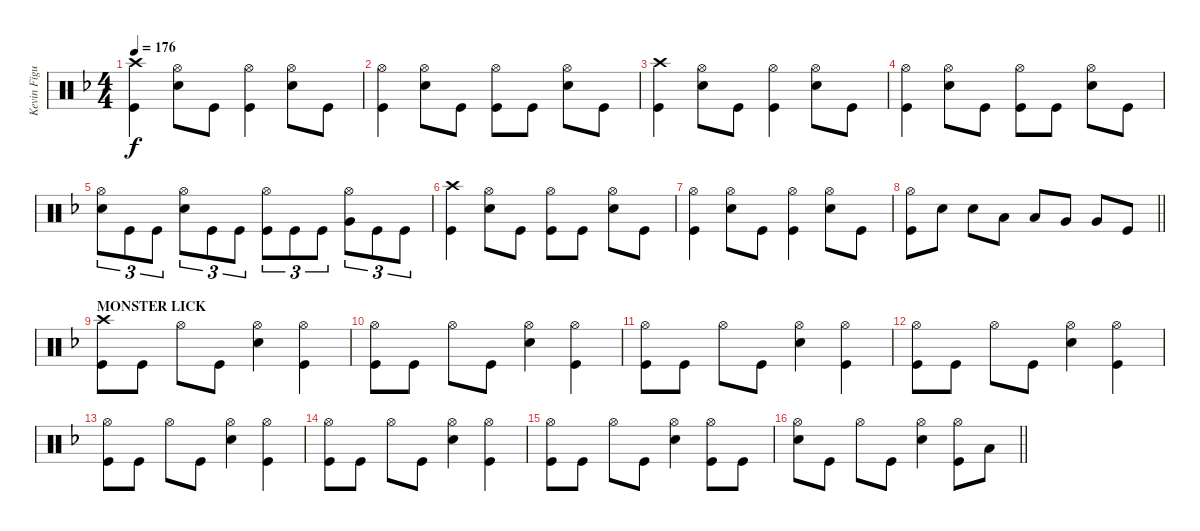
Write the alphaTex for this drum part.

\track ("Kevin Figueiredo - Drums" "Kevin Figu") {instrument percussion}
\staff {score}
\articulation defaults
\ts (4 4)
\tempo 176
\clef neutral
\ks f
("Crash high (hit)" "Kick (hit)").4{dy f} ("Hi-Hat (open)" "Snare (hit) 2").8 "Kick (hit)".8 ("Hi-Hat (open)" "Kick (hit)").4 ("Hi-Hat (open)" "Snare (hit) 2").8 "Kick (hit)".8 |
("Hi-Hat (open)" "Kick (hit)").4 ("Hi-Hat (open)" "Snare (hit) 2").8 "Kick (hit)".8 ("Hi-Hat (open)" "Kick (hit)").8 "Kick (hit)".8 ("Hi-Hat (open)" "Snare (hit) 2").8 "Kick (hit)".8 |
("Crash high (hit)" "Kick (hit)").4 ("Hi-Hat (open)" "Snare (hit) 2").8 "Kick (hit)".8 ("Hi-Hat (open)" "Kick (hit)").4 ("Hi-Hat (open)" "Snare (hit) 2").8 "Kick (hit)".8 |
("Hi-Hat (open)" "Kick (hit)").4 ("Hi-Hat (open)" "Snare (hit) 2").8 "Kick (hit)".8 ("Hi-Hat (open)" "Kick (hit)").8 "Kick (hit)".8 ("Hi-Hat (open)" "Snare (hit) 2").8 "Kick (hit)".8 |
("Hi-Hat (open)" "Snare (hit) 2").8{tu (3 2)} "Kick (hit)".8{tu (3 2)} "Kick (hit)".8{tu (3 2)} ("Hi-Hat (open)" "Snare (hit) 2").8{tu (3 2)} "Kick (hit)".8{tu (3 2)} "Kick (hit)".8{tu (3 2)} ("Hi-Hat (open)" "Kick (hit)").8{tu (3 2)} "Kick (hit)".8{tu (3 2)} "Kick (hit)".8{tu (3 2)} ("Hi-Hat (open)" "Very Low Tom (hit)").8{tu (3 2)} "Kick (hit)".8{tu (3 2)} "Kick (hit)".8{tu (3 2)} |
("Crash high (hit)" "Kick (hit)").4 ("Hi-Hat (open)" "Snare (hit) 2").8 "Kick (hit)".8 ("Hi-Hat (open)" "Kick (hit)").8 "Kick (hit)".8 ("Hi-Hat (open)" "Snare (hit) 2").8 "Kick (hit)".8 |
("Hi-Hat (open)" "Kick (hit)").4 ("Hi-Hat (open)" "Snare (hit) 2").8 "Kick (hit)".8 ("Hi-Hat (open)" "Kick (hit)").4 ("Hi-Hat (open)" "Snare (hit) 2").8 "Kick (hit)".8 |
\barLineRight lightlight
("Hi-Hat (open)" "Kick (hit)").8 "Snare (hit) 2".8 "Snare (hit) 2".8 "Low Tom (hit)".8 "Low Tom (hit)".8 "Very Low Tom (hit)".8 "Very Low Tom (hit)".8 "Kick (hit)".8 |
\section ("" "MONSTER LICK")
("Crash high (hit)" "Kick (hit)").8 "Kick (hit)".8 "Hi-Hat (open)".8 "Kick (hit)".8 ("Hi-Hat (open)" "Snare (hit) 2").4 ("Hi-Hat (open)" "Kick (hit)").4 |
("Hi-Hat (open)" "Kick (hit)").8 "Kick (hit)".8 "Hi-Hat (open)".8 "Kick (hit)".8 ("Hi-Hat (open)" "Snare (hit) 2").4 ("Hi-Hat (open)" "Kick (hit)").4 |
("Hi-Hat (open)" "Kick (hit)").8 "Kick (hit)".8 "Hi-Hat (open)".8 "Kick (hit)".8 ("Hi-Hat (open)" "Snare (hit) 2").4 ("Hi-Hat (open)" "Kick (hit)").4 |
("Hi-Hat (open)" "Kick (hit)").8 "Kick (hit)".8 "Hi-Hat (open)".8 "Kick (hit)".8 ("Hi-Hat (open)" "Snare (hit) 2").4 ("Hi-Hat (open)" "Kick (hit)").4 |
("Hi-Hat (open)" "Kick (hit)").8 "Kick (hit)".8 "Hi-Hat (open)".8 "Kick (hit)".8 ("Hi-Hat (open)" "Snare (hit) 2").4 ("Hi-Hat (open)" "Kick (hit)").4 |
("Hi-Hat (open)" "Kick (hit)").8 "Kick (hit)".8 "Hi-Hat (open)".8 "Kick (hit)".8 ("Hi-Hat (open)" "Snare (hit) 2").4 ("Hi-Hat (open)" "Kick (hit)").4 |
("Hi-Hat (open)" "Kick (hit)").8 "Kick (hit)".8 "Hi-Hat (open)".8 "Kick (hit)".8 ("Hi-Hat (open)" "Snare (hit) 2").4 ("Hi-Hat (open)" "Kick (hit)").8 "Kick (hit)".8 |
\barLineRight lightlight
("Hi-Hat (open)" "Snare (hit) 2").8 "Kick (hit)".8 "Hi-Hat (open)".8 "Kick (hit)".8 ("Hi-Hat (open)" "Snare (hit) 2").4 ("Hi-Hat (open)" "Kick (hit)").8 "Low Floor Tom (hit)".8
